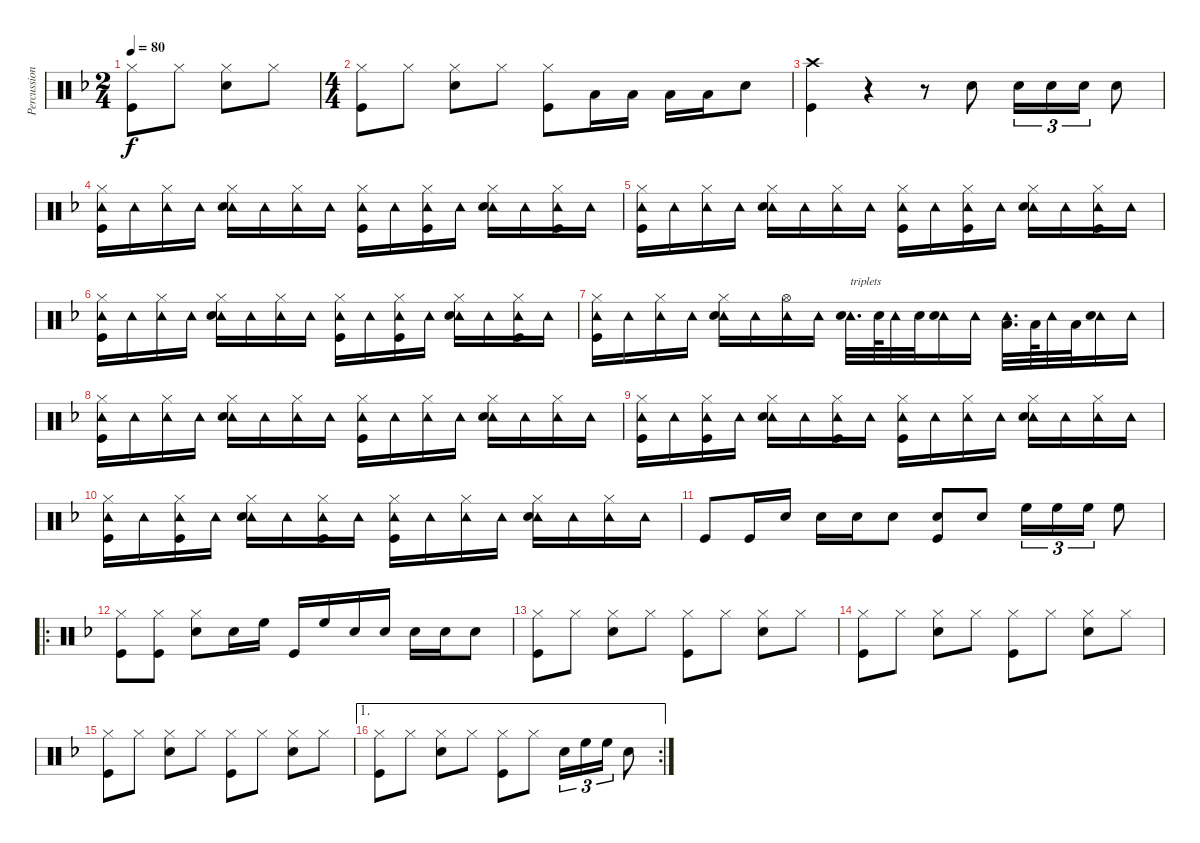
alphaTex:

\track ("Percussion" "Percussion") {instrument percussion}
\staff {score}
\articulation defaults
\ts (2 4)
\tempo 80
\clef neutral
\ks f
("Hi-Hat (closed)" "Kick (hit)").8{dy f} "Hi-Hat (closed)".8 ("Hi-Hat (closed)" "Snare (hit) 2").8 "Hi-Hat (closed)".8 |
\ts (4 4)
("Hi-Hat (closed)" "Kick (hit)").8 "Hi-Hat (closed)".8 ("Hi-Hat (closed)" "Snare (hit) 2").8 "Hi-Hat (closed)".8 ("Hi-Hat (closed)" "Kick (hit)").8 "Low Tom (hit)".16 "Low Tom (hit)".16 "Low Tom (hit)".16 "Low Tom (hit)".16 "Snare (hit) 2".8 |
("Crash high (hit)" "Kick (hit)").4 r.4 r.8 "Snare (hit) 2".8 "Snare (hit) 2".16{tu (3 2)} "Snare (hit) 2".16{tu (3 2)} "Snare (hit) 2".16{tu (3 2)} "Snare (hit) 2".8 |
("Hi-Hat (closed)" "Tambourine (hit)" "Kick (hit)").16 "Tambourine (hit)".16 ("Hi-Hat (closed)" "Tambourine (hit)").16 "Tambourine (hit)".16 ("Hi-Hat (closed)" "Tambourine (hit)" "Snare (hit) 2").16 "Tambourine (hit)".16 ("Hi-Hat (closed)" "Tambourine (hit)").16 "Tambourine (hit)".16 ("Hi-Hat (closed)" "Tambourine (hit)" "Kick (hit)").16 "Tambourine (hit)".16 ("Hi-Hat (closed)" "Tambourine (hit)" "Kick (hit)").16 "Tambourine (hit)".16 ("Hi-Hat (closed)" "Tambourine (hit)" "Snare (hit) 2").16 "Tambourine (hit)".16 ("Hi-Hat (closed)" "Tambourine (hit)" "Kick (hit)").16 "Tambourine (hit)".16 |
("Hi-Hat (closed)" "Tambourine (hit)" "Kick (hit)").16 "Tambourine (hit)".16 ("Hi-Hat (closed)" "Tambourine (hit)").16 "Tambourine (hit)".16 ("Hi-Hat (closed)" "Tambourine (hit)" "Snare (hit) 2").16 "Tambourine (hit)".16 ("Hi-Hat (closed)" "Tambourine (hit)").16 "Tambourine (hit)".16 ("Hi-Hat (closed)" "Tambourine (hit)" "Kick (hit)").16 "Tambourine (hit)".16 ("Hi-Hat (closed)" "Tambourine (hit)" "Kick (hit)").16 "Tambourine (hit)".16 ("Hi-Hat (closed)" "Tambourine (hit)" "Snare (hit) 2").16 "Tambourine (hit)".16 ("Hi-Hat (closed)" "Tambourine (hit)" "Kick (hit)").16 "Tambourine (hit)".16 |
("Hi-Hat (closed)" "Tambourine (hit)" "Kick (hit)").16 "Tambourine (hit)".16 ("Hi-Hat (closed)" "Tambourine (hit)").16 "Tambourine (hit)".16 ("Hi-Hat (closed)" "Tambourine (hit)" "Snare (hit) 2").16 "Tambourine (hit)".16 ("Hi-Hat (closed)" "Tambourine (hit)").16 "Tambourine (hit)".16 ("Hi-Hat (closed)" "Tambourine (hit)" "Kick (hit)").16 "Tambourine (hit)".16 ("Hi-Hat (closed)" "Tambourine (hit)" "Kick (hit)").16 "Tambourine (hit)".16 ("Hi-Hat (closed)" "Tambourine (hit)" "Snare (hit) 2").16 "Tambourine (hit)".16 ("Hi-Hat (closed)" "Tambourine (hit)" "Kick (hit)").16 "Tambourine (hit)".16 |
("Hi-Hat (closed)" "Tambourine (hit)" "Kick (hit)").16 "Tambourine (hit)".16 ("Hi-Hat (closed)" "Tambourine (hit)").16 "Tambourine (hit)".16 ("Hi-Hat (closed)" "Tambourine (hit)" "Snare (hit) 2").16 "Tambourine (hit)".16 ("Hi-Hat (open)" "Tambourine (hit)").16 "Tambourine (hit)".16 ("Tambourine (hit)" "Snare (hit) 2").32{d txt "triplets"} "Snare (hit) 2".64 "Tambourine (hit)".32 "Snare (hit) 2".32 ("Tambourine (hit)" "Snare (hit) 2").16 "Tambourine (hit)".16 ("Tambourine (hit)" "Low Tom (hit)").32{d} "Low Tom (hit)".64 "Tambourine (hit)".32 "Low Tom (hit)".32 ("Tambourine (hit)" "Snare (hit) 2").16 "Tambourine (hit)".16 |
("Hi-Hat (closed)" "Tambourine (hit)" "Kick (hit)").16 "Tambourine (hit)".16 ("Hi-Hat (closed)" "Tambourine (hit)").16 "Tambourine (hit)".16 ("Hi-Hat (closed)" "Tambourine (hit)" "Snare (hit) 2").16 "Tambourine (hit)".16 ("Hi-Hat (closed)" "Tambourine (hit)").16 "Tambourine (hit)".16 ("Hi-Hat (closed)" "Tambourine (hit)" "Kick (hit)").16 "Tambourine (hit)".16 ("Hi-Hat (closed)" "Tambourine (hit)").16 "Tambourine (hit)".16 ("Hi-Hat (closed)" "Tambourine (hit)" "Snare (hit) 2").16 "Tambourine (hit)".16 ("Hi-Hat (closed)" "Tambourine (hit)").16 "Tambourine (hit)".16 |
("Hi-Hat (closed)" "Tambourine (hit)" "Kick (hit)").16 "Tambourine (hit)".16 ("Hi-Hat (closed)" "Tambourine (hit)" "Kick (hit)").16 "Tambourine (hit)".16 ("Hi-Hat (closed)" "Tambourine (hit)" "Snare (hit) 2").16 "Tambourine (hit)".16 ("Hi-Hat (closed)" "Tambourine (hit)" "Kick (hit)").16 "Tambourine (hit)".16 ("Hi-Hat (closed)" "Tambourine (hit)" "Kick (hit)").16 "Tambourine (hit)".16 ("Hi-Hat (closed)" "Tambourine (hit)").16 "Tambourine (hit)".16 ("Hi-Hat (closed)" "Tambourine (hit)" "Snare (hit) 2").16 "Tambourine (hit)".16 ("Hi-Hat (closed)" "Tambourine (hit)").16 "Tambourine (hit)".16 |
("Hi-Hat (closed)" "Tambourine (hit)" "Kick (hit)").16 "Tambourine (hit)".16 ("Hi-Hat (closed)" "Tambourine (hit)" "Kick (hit)").16 "Tambourine (hit)".16 ("Hi-Hat (closed)" "Tambourine (hit)" "Snare (hit) 2").16 "Tambourine (hit)".16 ("Hi-Hat (closed)" "Tambourine (hit)" "Kick (hit)").16 "Tambourine (hit)".16 ("Hi-Hat (closed)" "Tambourine (hit)" "Kick (hit)").16 "Tambourine (hit)".16 ("Hi-Hat (closed)" "Tambourine (hit)").16 "Tambourine (hit)".16 ("Hi-Hat (closed)" "Tambourine (hit)" "Snare (hit) 2").16 "Tambourine (hit)".16 ("Hi-Hat (closed)" "Tambourine (hit)").16 "Tambourine (hit)".16 |
"Kick (hit)".8 "Kick (hit)".16 "Snare (hit) 2".16 "Snare (hit) 2".16 "Snare (hit) 2".16 "Snare (hit) 2".8 ("Snare (hit) 2" "Kick (hit)").8 "Snare (hit) 2".8 "High Floor Tom (hit)".16{tu (3 2)} "High Floor Tom (hit)".16{tu (3 2)} "High Floor Tom (hit)".16{tu (3 2)} "High Floor Tom (hit)".8 |
\ro
("Hi-Hat (closed)" "Kick (hit)").8 ("Hi-Hat (closed)" "Kick (hit)").8 ("Hi-Hat (closed)" "Snare (hit) 2").8 "Snare (hit) 2".16 "High Floor Tom (hit)".16 "Kick (hit)".16 "High Floor Tom (hit)".16 "Snare (hit) 2".16 "Snare (hit) 2".16 "Snare (hit) 2".16 "Snare (hit) 2".16 "Snare (hit) 2".8 |
("Hi-Hat (closed)" "Kick (hit)").8 "Hi-Hat (closed)".8 ("Hi-Hat (closed)" "Snare (hit) 2").8 "Hi-Hat (closed)".8 ("Hi-Hat (closed)" "Kick (hit)").8 "Hi-Hat (closed)".8 ("Hi-Hat (closed)" "Snare (hit) 2").8 "Hi-Hat (closed)".8 |
("Hi-Hat (closed)" "Kick (hit)").8 "Hi-Hat (closed)".8 ("Hi-Hat (closed)" "Snare (hit) 2").8 "Hi-Hat (closed)".8 ("Hi-Hat (closed)" "Kick (hit)").8 "Hi-Hat (closed)".8 ("Hi-Hat (closed)" "Snare (hit) 2").8 "Hi-Hat (closed)".8 |
("Hi-Hat (closed)" "Kick (hit)").8 "Hi-Hat (closed)".8 ("Hi-Hat (closed)" "Snare (hit) 2").8 "Hi-Hat (closed)".8 ("Hi-Hat (closed)" "Kick (hit)").8 "Hi-Hat (closed)".8 ("Hi-Hat (closed)" "Snare (hit) 2").8 "Hi-Hat (closed)".8 |
\ae 1
\rc 2
("Hi-Hat (closed)" "Kick (hit)").8 "Hi-Hat (closed)".8 ("Hi-Hat (closed)" "Snare (hit) 2").8 "Hi-Hat (closed)".8 ("Hi-Hat (closed)" "Kick (hit)").8 "Hi-Hat (closed)".8 "Snare (hit) 2".16{tu (3 2)} "High Floor Tom (hit)".16{tu (3 2)} "High Floor Tom (hit)".16{tu (3 2)} "Snare (hit) 2".8
